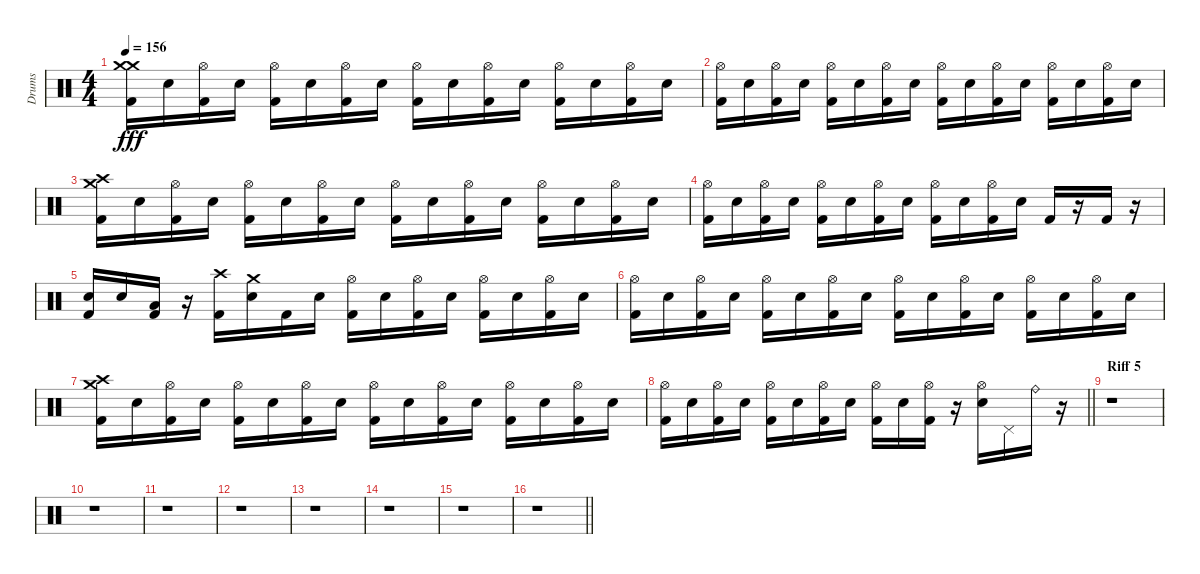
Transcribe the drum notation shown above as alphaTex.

\track ("Drums" "Drums") {instrument percussion}
\staff {score}
\articulation defaults
\ts (4 4)
\tempo 156
\clef neutral
\ks c
("Kick (hit) 2" "Crash medium (hit)" "Crash medium (hit)").16{dy fff} "Snare (hit) 2".16 ("Kick (hit) 2" "Hi-Hat (open)").16 "Snare (hit) 2".16 ("Kick (hit) 2" "Hi-Hat (open)").16 "Snare (hit) 2".16 ("Kick (hit) 2" "Hi-Hat (open)").16 "Snare (hit) 2".16 ("Kick (hit) 2" "Hi-Hat (open)").16 "Snare (hit) 2".16 ("Kick (hit) 2" "Hi-Hat (open)").16 "Snare (hit) 2".16 ("Kick (hit) 2" "Hi-Hat (open)").16 "Snare (hit) 2".16 ("Kick (hit) 2" "Hi-Hat (open)").16 "Snare (hit) 2".16 |
("Kick (hit) 2" "Hi-Hat (open)").16 "Snare (hit) 2".16 ("Kick (hit) 2" "Hi-Hat (open)").16 "Snare (hit) 2".16 ("Kick (hit) 2" "Hi-Hat (open)").16 "Snare (hit) 2".16 ("Kick (hit) 2" "Hi-Hat (open)").16 "Snare (hit) 2".16 ("Kick (hit) 2" "Hi-Hat (open)").16 "Snare (hit) 2".16 ("Kick (hit) 2" "Hi-Hat (open)").16 "Snare (hit) 2".16 ("Kick (hit) 2" "Hi-Hat (open)").16 "Snare (hit) 2".16 ("Kick (hit) 2" "Hi-Hat (open)").16 "Snare (hit) 2".16 |
("Kick (hit) 2" "Crash high (hit)" "Crash medium (hit)").16 "Snare (hit) 2".16 ("Kick (hit) 2" "Hi-Hat (open)").16 "Snare (hit) 2".16 ("Kick (hit) 2" "Hi-Hat (open)").16 "Snare (hit) 2".16 ("Kick (hit) 2" "Hi-Hat (open)").16 "Snare (hit) 2".16 ("Kick (hit) 2" "Hi-Hat (open)").16 "Snare (hit) 2".16 ("Kick (hit) 2" "Hi-Hat (open)").16 "Snare (hit) 2".16 ("Kick (hit) 2" "Hi-Hat (open)").16 "Snare (hit) 2".16 ("Kick (hit) 2" "Hi-Hat (open)").16 "Snare (hit) 2".16 |
("Kick (hit) 2" "Hi-Hat (open)").16 "Snare (hit) 2".16 ("Kick (hit) 2" "Hi-Hat (open)").16 "Snare (hit) 2".16 ("Kick (hit) 2" "Hi-Hat (open)").16 "Snare (hit) 2".16 ("Kick (hit) 2" "Hi-Hat (open)").16 "Snare (hit) 2".16 ("Kick (hit) 2" "Hi-Hat (open)").16 "Snare (hit) 2".16 ("Kick (hit) 2" "Hi-Hat (open)").16 "Snare (hit) 2".16 "Kick (hit) 2".16 r.16 "Kick (hit) 2".16 r.16 |
("Kick (hit) 2" "Snare (hit) 2").16 "Snare (hit) 2".16 ("Kick (hit) 2" "Low Tom (hit)").16 r.16 ("Kick (hit) 2" "Crash high (hit)").16 ("Snare (hit) 2" "Crash medium (hit)").16 "Kick (hit) 2".16 "Snare (hit) 2".16 ("Kick (hit) 2" "Hi-Hat (open)").16 "Snare (hit) 2".16 ("Kick (hit) 2" "Hi-Hat (open)").16 "Snare (hit) 2".16 ("Kick (hit) 2" "Hi-Hat (open)").16 "Snare (hit) 2".16 ("Kick (hit) 2" "Hi-Hat (open)").16 "Snare (hit) 2".16 |
("Kick (hit) 2" "Hi-Hat (open)").16 "Snare (hit) 2".16 ("Kick (hit) 2" "Hi-Hat (open)").16 "Snare (hit) 2".16 ("Kick (hit) 2" "Hi-Hat (open)").16 "Snare (hit) 2".16 ("Kick (hit) 2" "Hi-Hat (open)").16 "Snare (hit) 2".16 ("Kick (hit) 2" "Hi-Hat (open)").16 "Snare (hit) 2".16 ("Kick (hit) 2" "Hi-Hat (open)").16 "Snare (hit) 2".16 ("Kick (hit) 2" "Hi-Hat (open)").16 "Snare (hit) 2".16 ("Kick (hit) 2" "Hi-Hat (open)").16 "Snare (hit) 2".16 |
("Kick (hit) 2" "Crash high (hit)" "Crash medium (hit)").16 "Snare (hit) 2".16 ("Kick (hit) 2" "Hi-Hat (open)").16 "Snare (hit) 2".16 ("Kick (hit) 2" "Hi-Hat (open)").16 "Snare (hit) 2".16 ("Kick (hit) 2" "Hi-Hat (open)").16 "Snare (hit) 2".16 ("Kick (hit) 2" "Hi-Hat (open)").16 "Snare (hit) 2".16 ("Kick (hit) 2" "Hi-Hat (open)").16 "Snare (hit) 2".16 ("Kick (hit) 2" "Hi-Hat (open)").16 "Snare (hit) 2".16 ("Kick (hit) 2" "Hi-Hat (open)").16 "Snare (hit) 2".16 |
\barLineRight lightlight
("Kick (hit) 2" "Hi-Hat (open)").16 "Snare (hit) 2".16 ("Kick (hit) 2" "Hi-Hat (open)").16 "Snare (hit) 2".16 ("Kick (hit) 2" "Hi-Hat (open)").16 "Snare (hit) 2".16 ("Kick (hit) 2" "Hi-Hat (open)").16 "Snare (hit) 2".16 ("Kick (hit) 2" "Hi-Hat (open)").16 "Snare (hit) 2".16 ("Kick (hit) 2" "Hi-Hat (open)").16 r.16 ("Snare (hit) 2" "Hi-Hat (open)").16 "Pedal Hi-Hat (hit)".16 "Ride (bell)".16 r.16 |
\section ("" "Riff 5")
r.1 |
r.1 |
r.1 |
r.1 |
r.1 |
r.1 |
r.1 |
\barLineRight lightlight
r.1
